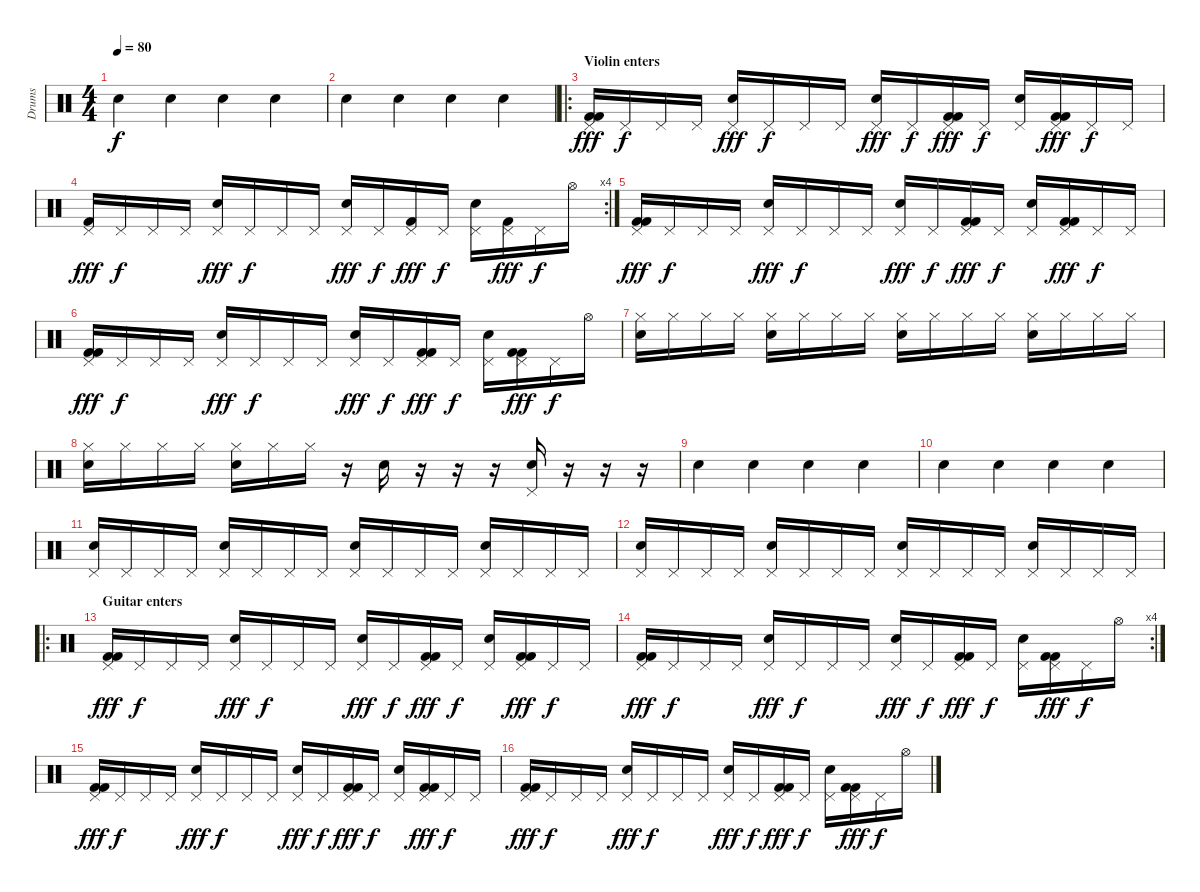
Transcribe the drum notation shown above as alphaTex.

\track ("Drums" "Drums") {instrument percussion}
\staff {score}
\articulation defaults
\ts (4 4)
\tempo 80
\clef neutral
\ks c "Hand Clap (hit)".4{dy f} "Hand Clap (hit)".4 "Hand Clap (hit)".4 "Hand Clap (hit)".4
|
"Hand Clap (hit)".4 "Hand Clap (hit)".4 "Hand Clap (hit)".4 "Hand Clap (hit)".4 |
\ro
\section ("" "Violin enters")
("Pedal Hi-Hat (hit)" "Kick (hit) 2" "Kick (hit) 2").16{dy fff} "Pedal Hi-Hat (hit)".16{dy f} "Pedal Hi-Hat (hit)".16 "Pedal Hi-Hat (hit)".16 ("Hand Clap (hit)" "Pedal Hi-Hat (hit)").16{dy fff} "Pedal Hi-Hat (hit)".16{dy f} "Pedal Hi-Hat (hit)".16 "Pedal Hi-Hat (hit)".16 ("Hand Clap (hit)" "Pedal Hi-Hat (hit)").16{dy fff} "Pedal Hi-Hat (hit)".16{dy f} ("Pedal Hi-Hat (hit)" "Kick (hit) 2" "Kick (hit) 2").16{dy fff} "Pedal Hi-Hat (hit)".16{dy f} ("Hand Clap (hit)" "Pedal Hi-Hat (hit)").16 ("Pedal Hi-Hat (hit)" "Kick (hit) 2" "Kick (hit) 2").16{dy fff} "Pedal Hi-Hat (hit)".16{dy f} "Pedal Hi-Hat (hit)".16 |
\rc 4
("Pedal Hi-Hat (hit)" "Kick (hit) 2").16{dy fff} "Pedal Hi-Hat (hit)".16{dy f} "Pedal Hi-Hat (hit)".16 "Pedal Hi-Hat (hit)".16 ("Hand Clap (hit)" "Pedal Hi-Hat (hit)").16{dy fff} "Pedal Hi-Hat (hit)".16{dy f} "Pedal Hi-Hat (hit)".16 "Pedal Hi-Hat (hit)".16 ("Hand Clap (hit)" "Pedal Hi-Hat (hit)").16{dy fff} "Pedal Hi-Hat (hit)".16{dy f} ("Pedal Hi-Hat (hit)" "Kick (hit) 2").16{dy fff} "Pedal Hi-Hat (hit)".16{dy f} ("Hand Clap (hit)" "Pedal Hi-Hat (hit)").16 ("Pedal Hi-Hat (hit)" "Kick (hit) 2").16{dy fff} "Pedal Hi-Hat (hit)".16{dy f} "Hi-Hat (open)".16 |
("Pedal Hi-Hat (hit)" "Kick (hit) 2" "Kick (hit) 2").16{dy fff} "Pedal Hi-Hat (hit)".16{dy f} "Pedal Hi-Hat (hit)".16 "Pedal Hi-Hat (hit)".16 ("Hand Clap (hit)" "Pedal Hi-Hat (hit)").16{dy fff} "Pedal Hi-Hat (hit)".16{dy f} "Pedal Hi-Hat (hit)".16 "Pedal Hi-Hat (hit)".16 ("Hand Clap (hit)" "Pedal Hi-Hat (hit)").16{dy fff} "Pedal Hi-Hat (hit)".16{dy f} ("Pedal Hi-Hat (hit)" "Kick (hit) 2" "Kick (hit) 2").16{dy fff} "Pedal Hi-Hat (hit)".16{dy f} ("Hand Clap (hit)" "Pedal Hi-Hat (hit)").16 ("Pedal Hi-Hat (hit)" "Kick (hit) 2" "Kick (hit) 2").16{dy fff} "Pedal Hi-Hat (hit)".16{dy f} "Pedal Hi-Hat (hit)".16 |
("Pedal Hi-Hat (hit)" "Kick (hit) 2" "Kick (hit) 2").16{dy fff} "Pedal Hi-Hat (hit)".16{dy f} "Pedal Hi-Hat (hit)".16 "Pedal Hi-Hat (hit)".16 ("Hand Clap (hit)" "Pedal Hi-Hat (hit)").16{dy fff} "Pedal Hi-Hat (hit)".16{dy f} "Pedal Hi-Hat (hit)".16 "Pedal Hi-Hat (hit)".16 ("Hand Clap (hit)" "Pedal Hi-Hat (hit)").16{dy fff} "Pedal Hi-Hat (hit)".16{dy f} ("Pedal Hi-Hat (hit)" "Kick (hit) 2" "Kick (hit) 2").16{dy fff} "Pedal Hi-Hat (hit)".16{dy f} ("Hand Clap (hit)" "Pedal Hi-Hat (hit)").16 ("Pedal Hi-Hat (hit)" "Kick (hit) 2" "Kick (hit) 2").16{dy fff} "Pedal Hi-Hat (hit)".16{dy f} "Hi-Hat (open)".16 |
("Hand Clap (hit)" "Hi-Hat (closed)").16 "Hi-Hat (closed)".16 "Hi-Hat (closed)".16 "Hi-Hat (closed)".16 ("Hand Clap (hit)" "Hi-Hat (closed)").16 "Hi-Hat (closed)".16 "Hi-Hat (closed)".16 "Hi-Hat (closed)".16 ("Hand Clap (hit)" "Hi-Hat (closed)").16 "Hi-Hat (closed)".16 "Hi-Hat (closed)".16 "Hi-Hat (closed)".16 ("Hand Clap (hit)" "Hi-Hat (closed)").16 "Hi-Hat (closed)".16 "Hi-Hat (closed)".16 "Hi-Hat (closed)".16 |
("Hand Clap (hit)" "Hi-Hat (closed)").16 "Hi-Hat (closed)".16 "Hi-Hat (closed)".16 "Hi-Hat (closed)".16 ("Hand Clap (hit)" "Hi-Hat (closed)").16 "Hi-Hat (closed)".16 "Hi-Hat (closed)".16 r.16 "Hand Clap (hit)".16 r.16 r.16 r.16 ("Hand Clap (hit)" "Pedal Hi-Hat (hit)").16 r.16 r.16 r.16 |
"Hand Clap (hit)".4 "Hand Clap (hit)".4 "Hand Clap (hit)".4 "Hand Clap (hit)".4 |
"Hand Clap (hit)".4 "Hand Clap (hit)".4 "Hand Clap (hit)".4 "Hand Clap (hit)".4 |
("Hand Clap (hit)" "Pedal Hi-Hat (hit)").16 "Pedal Hi-Hat (hit)".16 "Pedal Hi-Hat (hit)".16 "Pedal Hi-Hat (hit)".16 ("Hand Clap (hit)" "Pedal Hi-Hat (hit)").16 "Pedal Hi-Hat (hit)".16 "Pedal Hi-Hat (hit)".16 "Pedal Hi-Hat (hit)".16 ("Hand Clap (hit)" "Pedal Hi-Hat (hit)").16 "Pedal Hi-Hat (hit)".16 "Pedal Hi-Hat (hit)".16 "Pedal Hi-Hat (hit)".16 ("Hand Clap (hit)" "Pedal Hi-Hat (hit)").16 "Pedal Hi-Hat (hit)".16 "Pedal Hi-Hat (hit)".16 "Pedal Hi-Hat (hit)".16 |
("Hand Clap (hit)" "Pedal Hi-Hat (hit)").16 "Pedal Hi-Hat (hit)".16 "Pedal Hi-Hat (hit)".16 "Pedal Hi-Hat (hit)".16 ("Hand Clap (hit)" "Pedal Hi-Hat (hit)").16 "Pedal Hi-Hat (hit)".16 "Pedal Hi-Hat (hit)".16 "Pedal Hi-Hat (hit)".16 ("Hand Clap (hit)" "Pedal Hi-Hat (hit)").16 "Pedal Hi-Hat (hit)".16 "Pedal Hi-Hat (hit)".16 "Pedal Hi-Hat (hit)".16 ("Hand Clap (hit)" "Pedal Hi-Hat (hit)").16 "Pedal Hi-Hat (hit)".16 "Pedal Hi-Hat (hit)".16 "Pedal Hi-Hat (hit)".16 |
\ro
\section ("" "Guitar enters")
("Pedal Hi-Hat (hit)" "Kick (hit) 2" "Kick (hit) 2").16{dy fff} "Pedal Hi-Hat (hit)".16{dy f} "Pedal Hi-Hat (hit)".16 "Pedal Hi-Hat (hit)".16 ("Hand Clap (hit)" "Pedal Hi-Hat (hit)").16{dy fff} "Pedal Hi-Hat (hit)".16{dy f} "Pedal Hi-Hat (hit)".16 "Pedal Hi-Hat (hit)".16 ("Hand Clap (hit)" "Pedal Hi-Hat (hit)").16{dy fff} "Pedal Hi-Hat (hit)".16{dy f} ("Pedal Hi-Hat (hit)" "Kick (hit) 2" "Kick (hit) 2").16{dy fff} "Pedal Hi-Hat (hit)".16{dy f} ("Hand Clap (hit)" "Pedal Hi-Hat (hit)").16 ("Pedal Hi-Hat (hit)" "Kick (hit) 2" "Kick (hit) 2").16{dy fff} "Pedal Hi-Hat (hit)".16{dy f} "Pedal Hi-Hat (hit)".16 |
\rc 4
("Pedal Hi-Hat (hit)" "Kick (hit) 2" "Kick (hit) 2").16{dy fff} "Pedal Hi-Hat (hit)".16{dy f} "Pedal Hi-Hat (hit)".16 "Pedal Hi-Hat (hit)".16 ("Hand Clap (hit)" "Pedal Hi-Hat (hit)").16{dy fff} "Pedal Hi-Hat (hit)".16{dy f} "Pedal Hi-Hat (hit)".16 "Pedal Hi-Hat (hit)".16 ("Hand Clap (hit)" "Pedal Hi-Hat (hit)").16{dy fff} "Pedal Hi-Hat (hit)".16{dy f} ("Pedal Hi-Hat (hit)" "Kick (hit) 2" "Kick (hit) 2").16{dy fff} "Pedal Hi-Hat (hit)".16{dy f} ("Hand Clap (hit)" "Pedal Hi-Hat (hit)").16 ("Pedal Hi-Hat (hit)" "Kick (hit) 2" "Kick (hit) 2").16{dy fff} "Pedal Hi-Hat (hit)".16{dy f} "Hi-Hat (open)".16 |
("Pedal Hi-Hat (hit)" "Kick (hit) 2" "Kick (hit) 2").16{dy fff} "Pedal Hi-Hat (hit)".16{dy f} "Pedal Hi-Hat (hit)".16 "Pedal Hi-Hat (hit)".16 ("Hand Clap (hit)" "Pedal Hi-Hat (hit)").16{dy fff} "Pedal Hi-Hat (hit)".16{dy f} "Pedal Hi-Hat (hit)".16 "Pedal Hi-Hat (hit)".16 ("Hand Clap (hit)" "Pedal Hi-Hat (hit)").16{dy fff} "Pedal Hi-Hat (hit)".16{dy f} ("Pedal Hi-Hat (hit)" "Kick (hit) 2" "Kick (hit) 2").16{dy fff} "Pedal Hi-Hat (hit)".16{dy f} ("Hand Clap (hit)" "Pedal Hi-Hat (hit)").16 ("Pedal Hi-Hat (hit)" "Kick (hit) 2" "Kick (hit) 2").16{dy fff} "Pedal Hi-Hat (hit)".16{dy f} "Pedal Hi-Hat (hit)".16 |
("Pedal Hi-Hat (hit)" "Kick (hit) 2" "Kick (hit) 2").16{dy fff} "Pedal Hi-Hat (hit)".16{dy f} "Pedal Hi-Hat (hit)".16 "Pedal Hi-Hat (hit)".16 ("Hand Clap (hit)" "Pedal Hi-Hat (hit)").16{dy fff} "Pedal Hi-Hat (hit)".16{dy f} "Pedal Hi-Hat (hit)".16 "Pedal Hi-Hat (hit)".16 ("Hand Clap (hit)" "Pedal Hi-Hat (hit)").16{dy fff} "Pedal Hi-Hat (hit)".16{dy f} ("Pedal Hi-Hat (hit)" "Kick (hit) 2" "Kick (hit) 2").16{dy fff} "Pedal Hi-Hat (hit)".16{dy f} ("Hand Clap (hit)" "Pedal Hi-Hat (hit)").16 ("Pedal Hi-Hat (hit)" "Kick (hit) 2" "Kick (hit) 2").16{dy fff} "Pedal Hi-Hat (hit)".16{dy f} "Hi-Hat (open)".16
